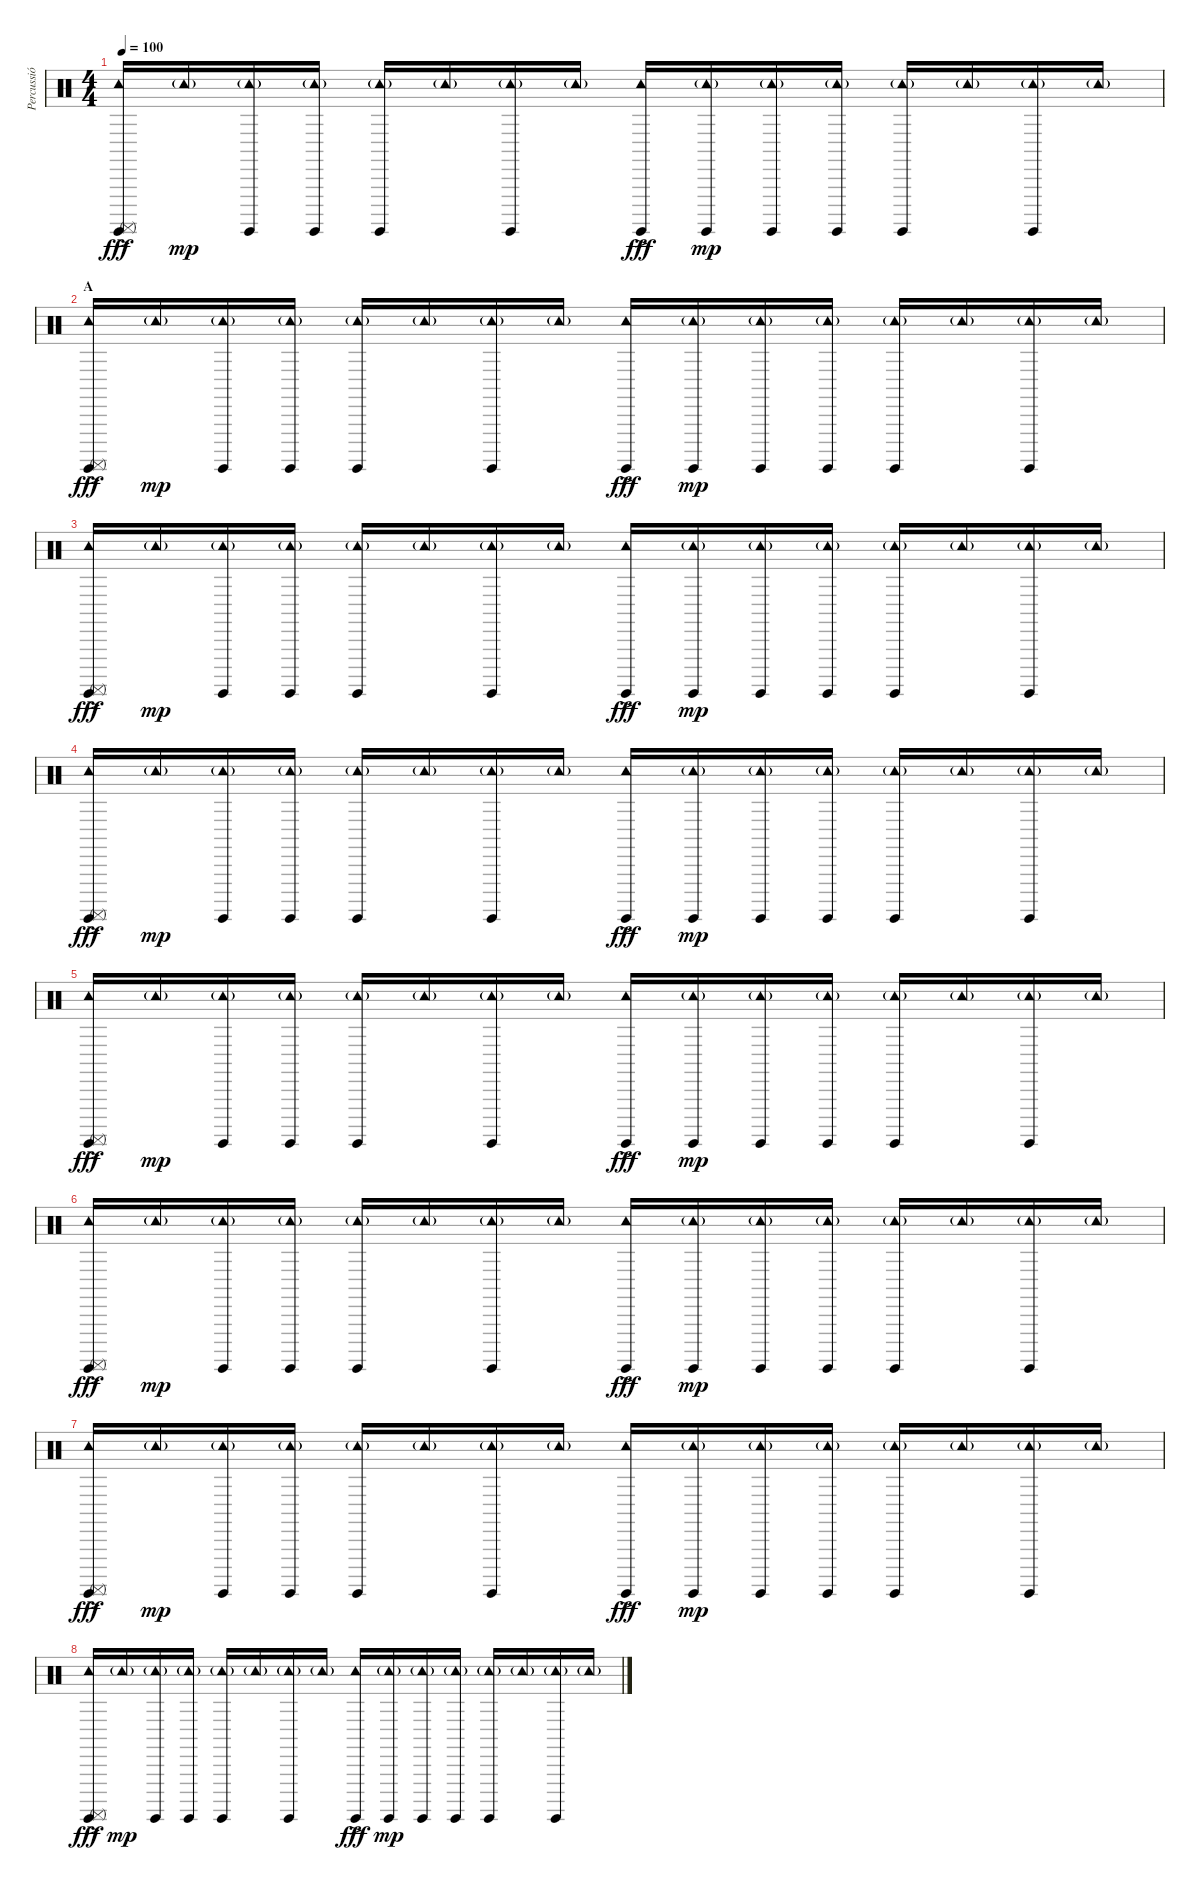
\track ("Percussió" "Percussió") {instrument percussion}
\staff {score}
\articulation defaults
\ts (4 4)
\tempo 100
\clef neutral
\ks c
("Tambourine (hit)"{ac} "Surdo (hit)" "Surdo (mute)"{ac}).16{dy fff} "Tambourine (hit)"{g}.16{dy mp} ("Tambourine (hit)"{g} "Surdo (hit)").16 ("Tambourine (hit)"{g} "Surdo (hit)").16 ("Tambourine (hit)"{g} "Surdo (hit)").16 "Tambourine (hit)"{g}.16 ("Tambourine (hit)"{g} "Surdo (hit)").16 "Tambourine (hit)"{g}.16 ("Tambourine (hit)"{ac} "Surdo (hit)"{ac}).16{dy fff} ("Tambourine (hit)"{g} "Surdo (hit)").16{dy mp} ("Tambourine (hit)"{g} "Surdo (hit)").16 ("Tambourine (hit)"{g} "Surdo (hit)").16 ("Tambourine (hit)"{g} "Surdo (hit)").16 "Tambourine (hit)"{g}.16 ("Tambourine (hit)"{g} "Surdo (hit)").16 "Tambourine (hit)"{g}.16 |
\section ("" "A")
("Tambourine (hit)"{ac} "Surdo (hit)" "Surdo (mute)"{ac}).16{dy fff} "Tambourine (hit)"{g}.16{dy mp} ("Tambourine (hit)"{g} "Surdo (hit)").16 ("Tambourine (hit)"{g} "Surdo (hit)").16 ("Tambourine (hit)"{g} "Surdo (hit)").16 "Tambourine (hit)"{g}.16 ("Tambourine (hit)"{g} "Surdo (hit)").16 "Tambourine (hit)"{g}.16 ("Tambourine (hit)"{ac} "Surdo (hit)"{ac}).16{dy fff} ("Tambourine (hit)"{g} "Surdo (hit)").16{dy mp} ("Tambourine (hit)"{g} "Surdo (hit)").16 ("Tambourine (hit)"{g} "Surdo (hit)").16 ("Tambourine (hit)"{g} "Surdo (hit)").16 "Tambourine (hit)"{g}.16 ("Tambourine (hit)"{g} "Surdo (hit)").16 "Tambourine (hit)"{g}.16 |
("Tambourine (hit)"{ac} "Surdo (hit)" "Surdo (mute)"{ac}).16{dy fff} "Tambourine (hit)"{g}.16{dy mp} ("Tambourine (hit)"{g} "Surdo (hit)").16 ("Tambourine (hit)"{g} "Surdo (hit)").16 ("Tambourine (hit)"{g} "Surdo (hit)").16 "Tambourine (hit)"{g}.16 ("Tambourine (hit)"{g} "Surdo (hit)").16 "Tambourine (hit)"{g}.16 ("Tambourine (hit)"{ac} "Surdo (hit)"{ac}).16{dy fff} ("Tambourine (hit)"{g} "Surdo (hit)").16{dy mp} ("Tambourine (hit)"{g} "Surdo (hit)").16 ("Tambourine (hit)"{g} "Surdo (hit)").16 ("Tambourine (hit)"{g} "Surdo (hit)").16 "Tambourine (hit)"{g}.16 ("Tambourine (hit)"{g} "Surdo (hit)").16 "Tambourine (hit)"{g}.16 |
("Tambourine (hit)"{ac} "Surdo (hit)" "Surdo (mute)"{ac}).16{dy fff} "Tambourine (hit)"{g}.16{dy mp} ("Tambourine (hit)"{g} "Surdo (hit)").16 ("Tambourine (hit)"{g} "Surdo (hit)").16 ("Tambourine (hit)"{g} "Surdo (hit)").16 "Tambourine (hit)"{g}.16 ("Tambourine (hit)"{g} "Surdo (hit)").16 "Tambourine (hit)"{g}.16 ("Tambourine (hit)"{ac} "Surdo (hit)"{ac}).16{dy fff} ("Tambourine (hit)"{g} "Surdo (hit)").16{dy mp} ("Tambourine (hit)"{g} "Surdo (hit)").16 ("Tambourine (hit)"{g} "Surdo (hit)").16 ("Tambourine (hit)"{g} "Surdo (hit)").16 "Tambourine (hit)"{g}.16 ("Tambourine (hit)"{g} "Surdo (hit)").16 "Tambourine (hit)"{g}.16 |
("Tambourine (hit)"{ac} "Surdo (hit)" "Surdo (mute)"{ac}).16{dy fff} "Tambourine (hit)"{g}.16{dy mp} ("Tambourine (hit)"{g} "Surdo (hit)").16 ("Tambourine (hit)"{g} "Surdo (hit)").16 ("Tambourine (hit)"{g} "Surdo (hit)").16 "Tambourine (hit)"{g}.16 ("Tambourine (hit)"{g} "Surdo (hit)").16 "Tambourine (hit)"{g}.16 ("Tambourine (hit)"{ac} "Surdo (hit)"{ac}).16{dy fff} ("Tambourine (hit)"{g} "Surdo (hit)").16{dy mp} ("Tambourine (hit)"{g} "Surdo (hit)").16 ("Tambourine (hit)"{g} "Surdo (hit)").16 ("Tambourine (hit)"{g} "Surdo (hit)").16 "Tambourine (hit)"{g}.16 ("Tambourine (hit)"{g} "Surdo (hit)").16 "Tambourine (hit)"{g}.16 |
("Tambourine (hit)"{ac} "Surdo (hit)" "Surdo (mute)"{ac}).16{dy fff} "Tambourine (hit)"{g}.16{dy mp} ("Tambourine (hit)"{g} "Surdo (hit)").16 ("Tambourine (hit)"{g} "Surdo (hit)").16 ("Tambourine (hit)"{g} "Surdo (hit)").16 "Tambourine (hit)"{g}.16 ("Tambourine (hit)"{g} "Surdo (hit)").16 "Tambourine (hit)"{g}.16 ("Tambourine (hit)"{ac} "Surdo (hit)"{ac}).16{dy fff} ("Tambourine (hit)"{g} "Surdo (hit)").16{dy mp} ("Tambourine (hit)"{g} "Surdo (hit)").16 ("Tambourine (hit)"{g} "Surdo (hit)").16 ("Tambourine (hit)"{g} "Surdo (hit)").16 "Tambourine (hit)"{g}.16 ("Tambourine (hit)"{g} "Surdo (hit)").16 "Tambourine (hit)"{g}.16 |
("Tambourine (hit)"{ac} "Surdo (hit)" "Surdo (mute)"{ac}).16{dy fff} "Tambourine (hit)"{g}.16{dy mp} ("Tambourine (hit)"{g} "Surdo (hit)").16 ("Tambourine (hit)"{g} "Surdo (hit)").16 ("Tambourine (hit)"{g} "Surdo (hit)").16 "Tambourine (hit)"{g}.16 ("Tambourine (hit)"{g} "Surdo (hit)").16 "Tambourine (hit)"{g}.16 ("Tambourine (hit)"{ac} "Surdo (hit)"{ac}).16{dy fff} ("Tambourine (hit)"{g} "Surdo (hit)").16{dy mp} ("Tambourine (hit)"{g} "Surdo (hit)").16 ("Tambourine (hit)"{g} "Surdo (hit)").16 ("Tambourine (hit)"{g} "Surdo (hit)").16 "Tambourine (hit)"{g}.16 ("Tambourine (hit)"{g} "Surdo (hit)").16 "Tambourine (hit)"{g}.16 |
("Tambourine (hit)"{ac} "Surdo (hit)" "Surdo (mute)"{ac}).16{dy fff} "Tambourine (hit)"{g}.16{dy mp} ("Tambourine (hit)"{g} "Surdo (hit)").16 ("Tambourine (hit)"{g} "Surdo (hit)").16 ("Tambourine (hit)"{g} "Surdo (hit)").16 "Tambourine (hit)"{g}.16 ("Tambourine (hit)"{g} "Surdo (hit)").16 "Tambourine (hit)"{g}.16 ("Tambourine (hit)"{ac} "Surdo (hit)"{ac}).16{dy fff} ("Tambourine (hit)"{g} "Surdo (hit)").16{dy mp} ("Tambourine (hit)"{g} "Surdo (hit)").16 ("Tambourine (hit)"{g} "Surdo (hit)").16 ("Tambourine (hit)"{g} "Surdo (hit)").16 "Tambourine (hit)"{g}.16 ("Tambourine (hit)"{g} "Surdo (hit)").16 "Tambourine (hit)"{g}.16
